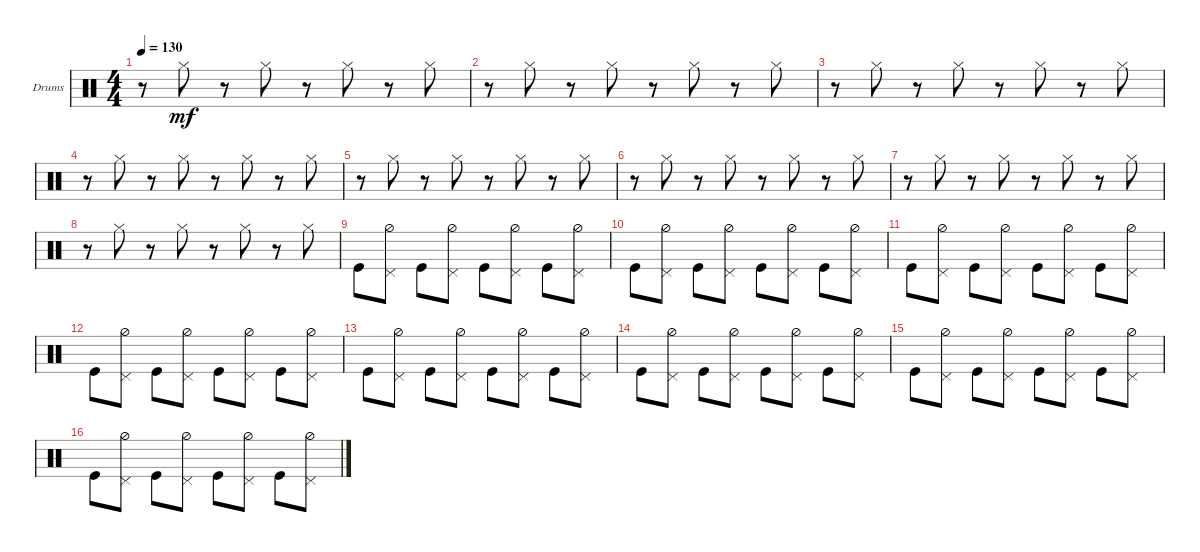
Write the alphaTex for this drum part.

\defaultSystemsLayout 4
\bracketExtendMode groupsimilarinstruments
\firstSystemTrackNameOrientation horizontal
\otherSystemsTrackNameOrientation horizontal
\track ("Барабаны" "Drums") {instrument percussion}
\staff {score}
\articulation defaults
\ts (4 4)
\tempo 130
\clef neutral
\ks c
r.8{dy mf} "Hi-Hat (closed)".8 r.8 "Hi-Hat (closed)".8 r.8 "Hi-Hat (closed)".8 r.8 "Hi-Hat (closed)".8 |
r.8 "Hi-Hat (closed)".8 r.8 "Hi-Hat (closed)".8 r.8 "Hi-Hat (closed)".8 r.8 "Hi-Hat (closed)".8 |
r.8 "Hi-Hat (closed)".8 r.8 "Hi-Hat (closed)".8 r.8 "Hi-Hat (closed)".8 r.8 "Hi-Hat (closed)".8 |
r.8 "Hi-Hat (closed)".8 r.8 "Hi-Hat (closed)".8 r.8 "Hi-Hat (closed)".8 r.8 "Hi-Hat (closed)".8 |
r.8 "Hi-Hat (closed)".8 r.8 "Hi-Hat (closed)".8 r.8 "Hi-Hat (closed)".8 r.8 "Hi-Hat (closed)".8 |
r.8 "Hi-Hat (closed)".8 r.8 "Hi-Hat (closed)".8 r.8 "Hi-Hat (closed)".8 r.8 "Hi-Hat (closed)".8 |
r.8 "Hi-Hat (closed)".8 r.8 "Hi-Hat (closed)".8 r.8 "Hi-Hat (closed)".8 r.8 "Hi-Hat (closed)".8 |
r.8 "Hi-Hat (closed)".8 r.8 "Hi-Hat (closed)".8 r.8 "Hi-Hat (closed)".8 r.8 "Hi-Hat (closed)".8 |
"Kick (hit)".8 ("Hi-Hat (half)" "Pedal Hi-Hat (hit)").8 "Kick (hit)".8 ("Hi-Hat (half)" "Pedal Hi-Hat (hit)").8 "Kick (hit)".8 ("Hi-Hat (half)" "Pedal Hi-Hat (hit)").8 "Kick (hit)".8 ("Hi-Hat (half)" "Pedal Hi-Hat (hit)").8 |
"Kick (hit)".8 ("Hi-Hat (half)" "Pedal Hi-Hat (hit)").8 "Kick (hit)".8 ("Hi-Hat (half)" "Pedal Hi-Hat (hit)").8 "Kick (hit)".8 ("Hi-Hat (half)" "Pedal Hi-Hat (hit)").8 "Kick (hit)".8 ("Hi-Hat (half)" "Pedal Hi-Hat (hit)").8 |
"Kick (hit)".8 ("Hi-Hat (half)" "Pedal Hi-Hat (hit)").8 "Kick (hit)".8 ("Hi-Hat (half)" "Pedal Hi-Hat (hit)").8 "Kick (hit)".8 ("Hi-Hat (half)" "Pedal Hi-Hat (hit)").8 "Kick (hit)".8 ("Hi-Hat (half)" "Pedal Hi-Hat (hit)").8 |
"Kick (hit)".8 ("Hi-Hat (half)" "Pedal Hi-Hat (hit)").8 "Kick (hit)".8 ("Hi-Hat (half)" "Pedal Hi-Hat (hit)").8 "Kick (hit)".8 ("Hi-Hat (half)" "Pedal Hi-Hat (hit)").8 "Kick (hit)".8 ("Hi-Hat (half)" "Pedal Hi-Hat (hit)").8 |
"Kick (hit)".8 ("Hi-Hat (half)" "Pedal Hi-Hat (hit)").8 "Kick (hit)".8 ("Hi-Hat (half)" "Pedal Hi-Hat (hit)").8 "Kick (hit)".8 ("Hi-Hat (half)" "Pedal Hi-Hat (hit)").8 "Kick (hit)".8 ("Hi-Hat (half)" "Pedal Hi-Hat (hit)").8 |
"Kick (hit)".8 ("Hi-Hat (half)" "Pedal Hi-Hat (hit)").8 "Kick (hit)".8 ("Hi-Hat (half)" "Pedal Hi-Hat (hit)").8 "Kick (hit)".8 ("Hi-Hat (half)" "Pedal Hi-Hat (hit)").8 "Kick (hit)".8 ("Hi-Hat (half)" "Pedal Hi-Hat (hit)").8 |
"Kick (hit)".8 ("Hi-Hat (half)" "Pedal Hi-Hat (hit)").8 "Kick (hit)".8 ("Hi-Hat (half)" "Pedal Hi-Hat (hit)").8 "Kick (hit)".8 ("Hi-Hat (half)" "Pedal Hi-Hat (hit)").8 "Kick (hit)".8 ("Hi-Hat (half)" "Pedal Hi-Hat (hit)").8 |
"Kick (hit)".8 ("Hi-Hat (half)" "Pedal Hi-Hat (hit)").8 "Kick (hit)".8 ("Hi-Hat (half)" "Pedal Hi-Hat (hit)").8 "Kick (hit)".8 ("Hi-Hat (half)" "Pedal Hi-Hat (hit)").8 "Kick (hit)".8 ("Hi-Hat (half)" "Pedal Hi-Hat (hit)").8
